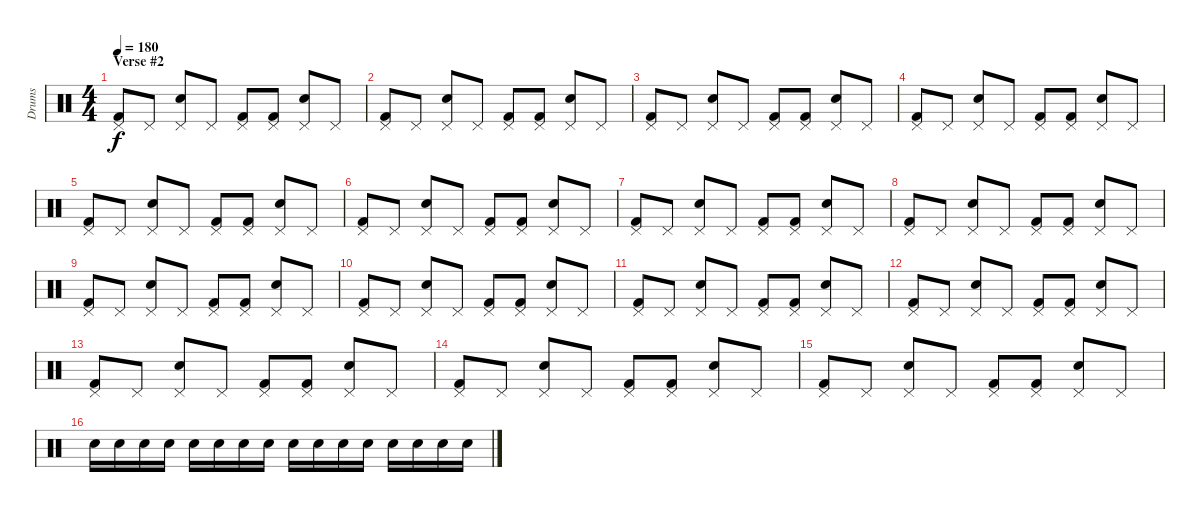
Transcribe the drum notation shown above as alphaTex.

\track ("Drums" "Drums") {instrument percussion}
\staff {score}
\articulation defaults
\ts (4 4)
\section ("" "Verse #2")
\tempo 180
\clef neutral
\ks c
("Pedal Hi-Hat (hit)" "Kick (hit) 2").8{dy f} "Pedal Hi-Hat (hit)".8 ("Pedal Hi-Hat (hit)" "Electric Snare (hit)").8 "Pedal Hi-Hat (hit)".8 ("Pedal Hi-Hat (hit)" "Kick (hit) 2").8 ("Pedal Hi-Hat (hit)" "Kick (hit) 2").8 ("Pedal Hi-Hat (hit)" "Electric Snare (hit)").8 "Pedal Hi-Hat (hit)".8 |
("Pedal Hi-Hat (hit)" "Kick (hit) 2").8 "Pedal Hi-Hat (hit)".8 ("Pedal Hi-Hat (hit)" "Electric Snare (hit)").8 "Pedal Hi-Hat (hit)".8 ("Pedal Hi-Hat (hit)" "Kick (hit) 2").8 ("Pedal Hi-Hat (hit)" "Kick (hit) 2").8 ("Pedal Hi-Hat (hit)" "Electric Snare (hit)").8 "Pedal Hi-Hat (hit)".8 |
("Pedal Hi-Hat (hit)" "Kick (hit) 2").8 "Pedal Hi-Hat (hit)".8 ("Pedal Hi-Hat (hit)" "Electric Snare (hit)").8 "Pedal Hi-Hat (hit)".8 ("Pedal Hi-Hat (hit)" "Kick (hit) 2").8 ("Pedal Hi-Hat (hit)" "Kick (hit) 2").8 ("Pedal Hi-Hat (hit)" "Electric Snare (hit)").8 "Pedal Hi-Hat (hit)".8 |
("Pedal Hi-Hat (hit)" "Kick (hit) 2").8 "Pedal Hi-Hat (hit)".8 ("Pedal Hi-Hat (hit)" "Electric Snare (hit)").8 "Pedal Hi-Hat (hit)".8 ("Pedal Hi-Hat (hit)" "Kick (hit) 2").8 ("Pedal Hi-Hat (hit)" "Kick (hit) 2").8 ("Pedal Hi-Hat (hit)" "Electric Snare (hit)").8 "Pedal Hi-Hat (hit)".8 |
("Pedal Hi-Hat (hit)" "Kick (hit) 2").8 "Pedal Hi-Hat (hit)".8 ("Pedal Hi-Hat (hit)" "Electric Snare (hit)").8 "Pedal Hi-Hat (hit)".8 ("Pedal Hi-Hat (hit)" "Kick (hit) 2").8 ("Pedal Hi-Hat (hit)" "Kick (hit) 2").8 ("Pedal Hi-Hat (hit)" "Electric Snare (hit)").8 "Pedal Hi-Hat (hit)".8 |
("Pedal Hi-Hat (hit)" "Kick (hit) 2").8 "Pedal Hi-Hat (hit)".8 ("Pedal Hi-Hat (hit)" "Electric Snare (hit)").8 "Pedal Hi-Hat (hit)".8 ("Pedal Hi-Hat (hit)" "Kick (hit) 2").8 ("Pedal Hi-Hat (hit)" "Kick (hit) 2").8 ("Pedal Hi-Hat (hit)" "Electric Snare (hit)").8 "Pedal Hi-Hat (hit)".8 |
("Pedal Hi-Hat (hit)" "Kick (hit) 2").8 "Pedal Hi-Hat (hit)".8 ("Pedal Hi-Hat (hit)" "Electric Snare (hit)").8 "Pedal Hi-Hat (hit)".8 ("Pedal Hi-Hat (hit)" "Kick (hit) 2").8 ("Pedal Hi-Hat (hit)" "Kick (hit) 2").8 ("Pedal Hi-Hat (hit)" "Electric Snare (hit)").8 "Pedal Hi-Hat (hit)".8 |
("Pedal Hi-Hat (hit)" "Kick (hit) 2").8 "Pedal Hi-Hat (hit)".8 ("Pedal Hi-Hat (hit)" "Electric Snare (hit)").8 "Pedal Hi-Hat (hit)".8 ("Pedal Hi-Hat (hit)" "Kick (hit) 2").8 ("Pedal Hi-Hat (hit)" "Kick (hit) 2").8 ("Pedal Hi-Hat (hit)" "Electric Snare (hit)").8 "Pedal Hi-Hat (hit)".8 |
("Pedal Hi-Hat (hit)" "Kick (hit) 2").8 "Pedal Hi-Hat (hit)".8 ("Pedal Hi-Hat (hit)" "Electric Snare (hit)").8 "Pedal Hi-Hat (hit)".8 ("Pedal Hi-Hat (hit)" "Kick (hit) 2").8 ("Pedal Hi-Hat (hit)" "Kick (hit) 2").8 ("Pedal Hi-Hat (hit)" "Electric Snare (hit)").8 "Pedal Hi-Hat (hit)".8 |
("Pedal Hi-Hat (hit)" "Kick (hit) 2").8 "Pedal Hi-Hat (hit)".8 ("Pedal Hi-Hat (hit)" "Electric Snare (hit)").8 "Pedal Hi-Hat (hit)".8 ("Pedal Hi-Hat (hit)" "Kick (hit) 2").8 ("Pedal Hi-Hat (hit)" "Kick (hit) 2").8 ("Pedal Hi-Hat (hit)" "Electric Snare (hit)").8 "Pedal Hi-Hat (hit)".8 |
("Pedal Hi-Hat (hit)" "Kick (hit) 2").8 "Pedal Hi-Hat (hit)".8 ("Pedal Hi-Hat (hit)" "Electric Snare (hit)").8 "Pedal Hi-Hat (hit)".8 ("Pedal Hi-Hat (hit)" "Kick (hit) 2").8 ("Pedal Hi-Hat (hit)" "Kick (hit) 2").8 ("Pedal Hi-Hat (hit)" "Electric Snare (hit)").8 "Pedal Hi-Hat (hit)".8 |
("Pedal Hi-Hat (hit)" "Kick (hit) 2").8 "Pedal Hi-Hat (hit)".8 ("Pedal Hi-Hat (hit)" "Electric Snare (hit)").8 "Pedal Hi-Hat (hit)".8 ("Pedal Hi-Hat (hit)" "Kick (hit) 2").8 ("Pedal Hi-Hat (hit)" "Kick (hit) 2").8 ("Pedal Hi-Hat (hit)" "Electric Snare (hit)").8 "Pedal Hi-Hat (hit)".8 |
("Pedal Hi-Hat (hit)" "Kick (hit) 2").8 "Pedal Hi-Hat (hit)".8 ("Pedal Hi-Hat (hit)" "Electric Snare (hit)").8 "Pedal Hi-Hat (hit)".8 ("Pedal Hi-Hat (hit)" "Kick (hit) 2").8 ("Pedal Hi-Hat (hit)" "Kick (hit) 2").8 ("Pedal Hi-Hat (hit)" "Electric Snare (hit)").8 "Pedal Hi-Hat (hit)".8 |
("Pedal Hi-Hat (hit)" "Kick (hit) 2").8 "Pedal Hi-Hat (hit)".8 ("Pedal Hi-Hat (hit)" "Electric Snare (hit)").8 "Pedal Hi-Hat (hit)".8 ("Pedal Hi-Hat (hit)" "Kick (hit) 2").8 ("Pedal Hi-Hat (hit)" "Kick (hit) 2").8 ("Pedal Hi-Hat (hit)" "Electric Snare (hit)").8 "Pedal Hi-Hat (hit)".8 |
("Pedal Hi-Hat (hit)" "Kick (hit) 2").8 "Pedal Hi-Hat (hit)".8 ("Pedal Hi-Hat (hit)" "Electric Snare (hit)").8 "Pedal Hi-Hat (hit)".8 ("Pedal Hi-Hat (hit)" "Kick (hit) 2").8 ("Pedal Hi-Hat (hit)" "Kick (hit) 2").8 ("Pedal Hi-Hat (hit)" "Electric Snare (hit)").8 "Pedal Hi-Hat (hit)".8 |
"Electric Snare (hit)".16 "Electric Snare (hit)".16 "Electric Snare (hit)".16 "Electric Snare (hit)".16 "Electric Snare (hit)".16 "Electric Snare (hit)".16 "Electric Snare (hit)".16 "Electric Snare (hit)".16 "Electric Snare (hit)".16 "Electric Snare (hit)".16 "Electric Snare (hit)".16 "Electric Snare (hit)".16 "Electric Snare (hit)".16 "Electric Snare (hit)".16 "Electric Snare (hit)".16 "Electric Snare (hit)".16
